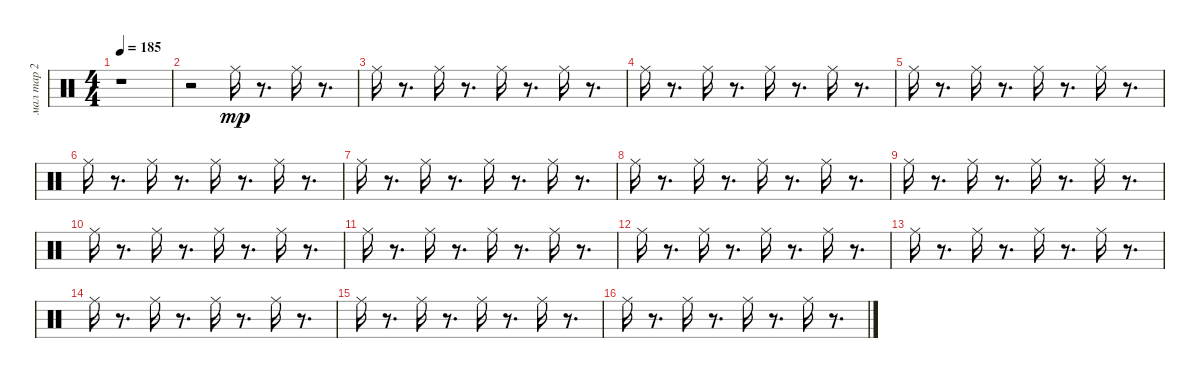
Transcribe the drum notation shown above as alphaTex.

\track ("мал тар 2" "мал тар 2") {instrument percussion}
\staff {score}
\articulation defaults
\ts (4 4)
\tempo 185
\clef neutral
\ks c
r.1{dy mp} |
r.2 "Ride (middle)".16 r.8{d} "Ride (middle)".16 r.8{d} |
"Ride (middle)".16 r.8{d} "Ride (middle)".16 r.8{d} "Ride (middle)".16 r.8{d} "Ride (middle)".16 r.8{d} |
"Ride (middle)".16 r.8{d} "Ride (middle)".16 r.8{d} "Ride (middle)".16 r.8{d} "Ride (middle)".16 r.8{d} |
"Ride (middle)".16 r.8{d} "Ride (middle)".16 r.8{d} "Ride (middle)".16 r.8{d} "Ride (middle)".16 r.8{d} |
"Ride (middle)".16 r.8{d} "Ride (middle)".16 r.8{d} "Ride (middle)".16 r.8{d} "Ride (middle)".16 r.8{d} |
"Ride (middle)".16 r.8{d} "Ride (middle)".16 r.8{d} "Ride (middle)".16 r.8{d} "Ride (middle)".16 r.8{d} |
"Ride (middle)".16 r.8{d} "Ride (middle)".16 r.8{d} "Ride (middle)".16 r.8{d} "Ride (middle)".16 r.8{d} |
"Ride (middle)".16 r.8{d} "Ride (middle)".16 r.8{d} "Ride (middle)".16 r.8{d} "Ride (middle)".16 r.8{d} |
"Ride (middle)".16 r.8{d} "Ride (middle)".16 r.8{d} "Ride (middle)".16 r.8{d} "Ride (middle)".16 r.8{d} |
"Ride (middle)".16 r.8{d} "Ride (middle)".16 r.8{d} "Ride (middle)".16 r.8{d} "Ride (middle)".16 r.8{d} |
"Ride (middle)".16 r.8{d} "Ride (middle)".16 r.8{d} "Ride (middle)".16 r.8{d} "Ride (middle)".16 r.8{d} |
"Ride (middle)".16 r.8{d} "Ride (middle)".16 r.8{d} "Ride (middle)".16 r.8{d} "Ride (middle)".16 r.8{d} |
"Ride (middle)".16 r.8{d} "Ride (middle)".16 r.8{d} "Ride (middle)".16 r.8{d} "Ride (middle)".16 r.8{d} |
"Ride (middle)".16 r.8{d} "Ride (middle)".16 r.8{d} "Ride (middle)".16 r.8{d} "Ride (middle)".16 r.8{d} |
"Ride (middle)".16 r.8{d} "Ride (middle)".16 r.8{d} "Ride (middle)".16 r.8{d} "Ride (middle)".16 r.8{d}
